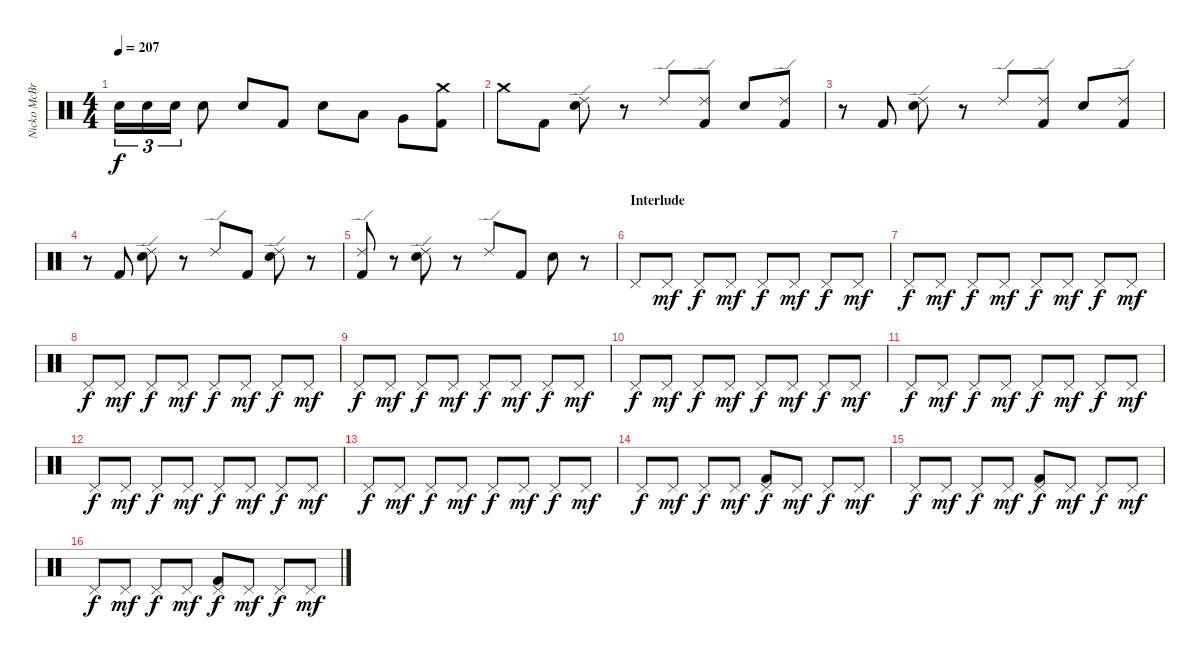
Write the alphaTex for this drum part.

\track ("Nicko McBrain" "Nicko McBr") {instrument percussion}
\staff {score}
\articulation defaults
\ts (4 4)
\tempo 207
\clef neutral
\ks c "Snare (hit) 2".16{tu (3 2) dy f} "Snare (hit) 2".16{tu (3 2)} "Snare (hit) 2".16{tu (3 2)} "Snare (hit) 2".8 "Snare (hit) 2".8 "Kick (hit) 2".8 "Snare (hit) 2".8 "Low Tom (hit)".8 "Very Low Tom (hit)".8
("Crash medium (hit)" "Kick (hit) 2").8 |
"Crash medium (hit)".8 "Kick (hit) 2".8 ("Ride (edge) 2" "Snare (hit) 2").8 r.8 "Ride (edge) 2".8 ("Ride (edge) 2" "Kick (hit) 2").8 "Snare (hit) 2".8 ("Ride (edge) 2" "Kick (hit) 2").8 |
r.8 "Kick (hit) 2".8 ("Ride (edge) 2" "Snare (hit) 2").8 r.8 "Ride (edge) 2".8 ("Ride (edge) 2" "Kick (hit) 2").8 "Snare (hit) 2".8 ("Ride (edge) 2" "Kick (hit) 2").8 |
r.8 "Kick (hit) 2".8 ("Ride (edge) 2" "Snare (hit) 2").8 r.8 "Ride (edge) 2".8 "Kick (hit) 2".8 ("Ride (edge) 2" "Snare (hit) 2").8 r.8 |
("Ride (edge) 2" "Kick (hit) 2").8 r.8 ("Ride (edge) 2" "Snare (hit) 2").8 r.8 "Ride (edge) 2".8 "Kick (hit) 2".8 "Snare (hit) 2".8 r.8 |
\section ("" "Interlude")
"Pedal Hi-Hat (hit)".8 "Pedal Hi-Hat (hit)".8{dy mf} "Pedal Hi-Hat (hit)".8{dy f} "Pedal Hi-Hat (hit)".8{dy mf} "Pedal Hi-Hat (hit)".8{dy f} "Pedal Hi-Hat (hit)".8{dy mf} "Pedal Hi-Hat (hit)".8{dy f} "Pedal Hi-Hat (hit)".8{dy mf} |
"Pedal Hi-Hat (hit)".8{dy f} "Pedal Hi-Hat (hit)".8{dy mf} "Pedal Hi-Hat (hit)".8{dy f} "Pedal Hi-Hat (hit)".8{dy mf} "Pedal Hi-Hat (hit)".8{dy f} "Pedal Hi-Hat (hit)".8{dy mf} "Pedal Hi-Hat (hit)".8{dy f} "Pedal Hi-Hat (hit)".8{dy mf} |
"Pedal Hi-Hat (hit)".8{dy f} "Pedal Hi-Hat (hit)".8{dy mf} "Pedal Hi-Hat (hit)".8{dy f} "Pedal Hi-Hat (hit)".8{dy mf} "Pedal Hi-Hat (hit)".8{dy f} "Pedal Hi-Hat (hit)".8{dy mf} "Pedal Hi-Hat (hit)".8{dy f} "Pedal Hi-Hat (hit)".8{dy mf} |
"Pedal Hi-Hat (hit)".8{dy f} "Pedal Hi-Hat (hit)".8{dy mf} "Pedal Hi-Hat (hit)".8{dy f} "Pedal Hi-Hat (hit)".8{dy mf} "Pedal Hi-Hat (hit)".8{dy f} "Pedal Hi-Hat (hit)".8{dy mf} "Pedal Hi-Hat (hit)".8{dy f} "Pedal Hi-Hat (hit)".8{dy mf} |
"Pedal Hi-Hat (hit)".8{dy f} "Pedal Hi-Hat (hit)".8{dy mf} "Pedal Hi-Hat (hit)".8{dy f} "Pedal Hi-Hat (hit)".8{dy mf} "Pedal Hi-Hat (hit)".8{dy f} "Pedal Hi-Hat (hit)".8{dy mf} "Pedal Hi-Hat (hit)".8{dy f} "Pedal Hi-Hat (hit)".8{dy mf} |
"Pedal Hi-Hat (hit)".8{dy f} "Pedal Hi-Hat (hit)".8{dy mf} "Pedal Hi-Hat (hit)".8{dy f} "Pedal Hi-Hat (hit)".8{dy mf} "Pedal Hi-Hat (hit)".8{dy f} "Pedal Hi-Hat (hit)".8{dy mf} "Pedal Hi-Hat (hit)".8{dy f} "Pedal Hi-Hat (hit)".8{dy mf} |
"Pedal Hi-Hat (hit)".8{dy f} "Pedal Hi-Hat (hit)".8{dy mf} "Pedal Hi-Hat (hit)".8{dy f} "Pedal Hi-Hat (hit)".8{dy mf} "Pedal Hi-Hat (hit)".8{dy f} "Pedal Hi-Hat (hit)".8{dy mf} "Pedal Hi-Hat (hit)".8{dy f} "Pedal Hi-Hat (hit)".8{dy mf} |
"Pedal Hi-Hat (hit)".8{dy f} "Pedal Hi-Hat (hit)".8{dy mf} "Pedal Hi-Hat (hit)".8{dy f} "Pedal Hi-Hat (hit)".8{dy mf} "Pedal Hi-Hat (hit)".8{dy f} "Pedal Hi-Hat (hit)".8{dy mf} "Pedal Hi-Hat (hit)".8{dy f} "Pedal Hi-Hat (hit)".8{dy mf} |
"Pedal Hi-Hat (hit)".8{dy f} "Pedal Hi-Hat (hit)".8{dy mf} "Pedal Hi-Hat (hit)".8{dy f} "Pedal Hi-Hat (hit)".8{dy mf} ("Pedal Hi-Hat (hit)" "Kick (hit) 2").8{dy f} "Pedal Hi-Hat (hit)".8{dy mf} "Pedal Hi-Hat (hit)".8{dy f} "Pedal Hi-Hat (hit)".8{dy mf} |
"Pedal Hi-Hat (hit)".8{dy f} "Pedal Hi-Hat (hit)".8{dy mf} "Pedal Hi-Hat (hit)".8{dy f} "Pedal Hi-Hat (hit)".8{dy mf} ("Pedal Hi-Hat (hit)" "Kick (hit) 2").8{dy f} "Pedal Hi-Hat (hit)".8{dy mf} "Pedal Hi-Hat (hit)".8{dy f} "Pedal Hi-Hat (hit)".8{dy mf} |
"Pedal Hi-Hat (hit)".8{dy f} "Pedal Hi-Hat (hit)".8{dy mf} "Pedal Hi-Hat (hit)".8{dy f} "Pedal Hi-Hat (hit)".8{dy mf} ("Pedal Hi-Hat (hit)" "Kick (hit) 2").8{dy f} "Pedal Hi-Hat (hit)".8{dy mf} "Pedal Hi-Hat (hit)".8{dy f} "Pedal Hi-Hat (hit)".8{dy mf}
